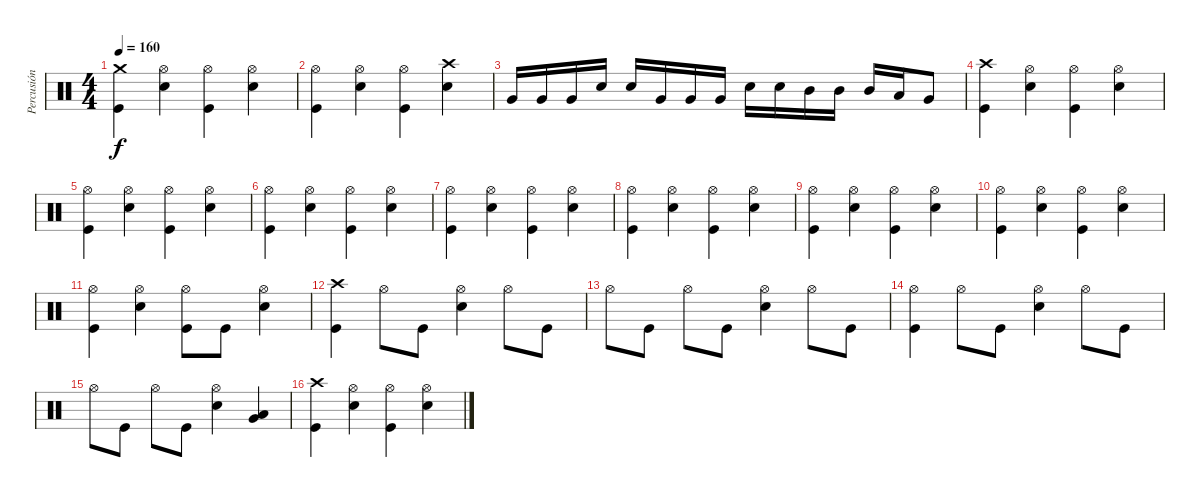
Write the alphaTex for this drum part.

\track ("Percusión" "Percusión") {instrument percussion}
\staff {score}
\articulation defaults
\ts (4 4)
\tempo 160
\clef neutral
\ks c
("Kick (hit)" "Crash medium (hit)").4{dy f} ("Snare (hit) 2" "Hi-Hat (open)").4 ("Kick (hit)" "Hi-Hat (open)").4 ("Snare (hit) 2" "Hi-Hat (open)").4 |
("Kick (hit)" "Hi-Hat (open)").4 ("Snare (hit) 2" "Hi-Hat (open)").4 ("Kick (hit)" "Hi-Hat (open)").4 ("Snare (hit) 2" "Crash high (hit)").4 |
"Very Low Tom (hit)".16 "Very Low Tom (hit)".16 "Very Low Tom (hit)".16 "Snare (hit) 2".16 "Snare (hit) 2".16 "Very Low Tom (hit)".16 "Very Low Tom (hit)".16 "Very Low Tom (hit)".16 "Snare (hit) 2".16 "Snare (hit) 2".16 "Mid Tom (hit)".16 "Mid Tom (hit)".16 "Mid Tom (hit)".16 "Low Tom (hit)".16 "Very Low Tom (hit)".8 |
("Kick (hit)" "Crash high (hit)").4 ("Snare (hit) 2" "Hi-Hat (open)").4 ("Kick (hit)" "Hi-Hat (open)").4 ("Snare (hit) 2" "Hi-Hat (open)").4 |
("Kick (hit)" "Hi-Hat (open)").4 ("Snare (hit) 2" "Hi-Hat (open)").4 ("Kick (hit)" "Hi-Hat (open)").4 ("Snare (hit) 2" "Hi-Hat (open)").4 |
("Kick (hit)" "Hi-Hat (open)").4 ("Snare (hit) 2" "Hi-Hat (open)").4 ("Kick (hit)" "Hi-Hat (open)").4 ("Snare (hit) 2" "Hi-Hat (open)").4 |
("Kick (hit)" "Hi-Hat (open)").4 ("Snare (hit) 2" "Hi-Hat (open)").4 ("Kick (hit)" "Hi-Hat (open)").4 ("Snare (hit) 2" "Hi-Hat (open)").4 |
("Kick (hit)" "Hi-Hat (open)").4 ("Snare (hit) 2" "Hi-Hat (open)").4 ("Kick (hit)" "Hi-Hat (open)").4 ("Snare (hit) 2" "Hi-Hat (open)").4 |
("Kick (hit)" "Hi-Hat (open)").4 ("Snare (hit) 2" "Hi-Hat (open)").4 ("Kick (hit)" "Hi-Hat (open)").4 ("Snare (hit) 2" "Hi-Hat (open)").4 |
("Kick (hit)" "Hi-Hat (open)").4 ("Snare (hit) 2" "Hi-Hat (open)").4 ("Kick (hit)" "Hi-Hat (open)").4 ("Snare (hit) 2" "Hi-Hat (open)").4 |
("Kick (hit)" "Hi-Hat (open)").4 ("Snare (hit) 2" "Hi-Hat (open)").4 ("Kick (hit)" "Hi-Hat (open)").8 "Kick (hit)".8 ("Snare (hit) 2" "Hi-Hat (open)").4 |
("Kick (hit)" "Crash high (hit)").4 "Hi-Hat (open)".8 "Kick (hit)".8 ("Snare (hit) 2" "Hi-Hat (open)").4 "Hi-Hat (open)".8 "Kick (hit)".8 |
"Hi-Hat (open)".8 "Kick (hit)".8 "Hi-Hat (open)".8 "Kick (hit)".8 ("Snare (hit) 2" "Hi-Hat (open)").4 "Hi-Hat (open)".8 "Kick (hit)".8 |
("Kick (hit)" "Hi-Hat (open)").4 "Hi-Hat (open)".8 "Kick (hit)".8 ("Snare (hit) 2" "Hi-Hat (open)").4 "Hi-Hat (open)".8 "Kick (hit)".8 |
"Hi-Hat (open)".8 "Kick (hit)".8 "Hi-Hat (open)".8 "Kick (hit)".8 ("Snare (hit) 2" "Hi-Hat (open)").4 ("Low Floor Tom (hit)" "Very Low Tom (hit)").4 |
("Kick (hit)" "Crash high (hit)").4 ("Snare (hit) 2" "Hi-Hat (open)").4 ("Kick (hit)" "Hi-Hat (open)").4 ("Snare (hit) 2" "Hi-Hat (open)").4
